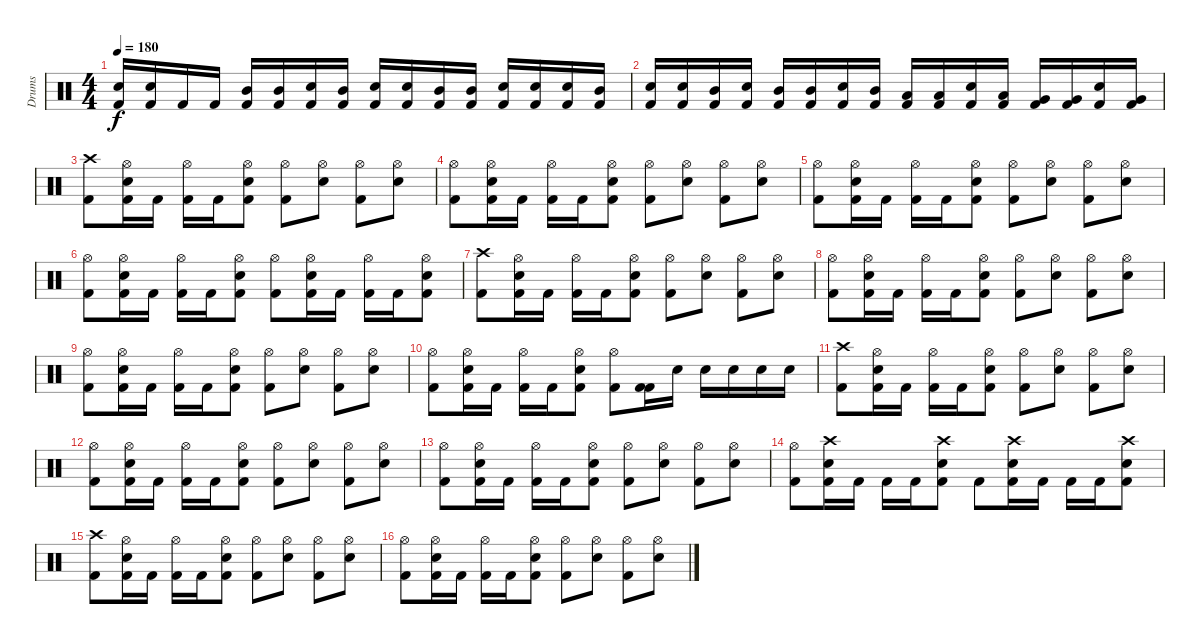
\track ("Drums" "Drums") {instrument percussion}
\staff {score}
\articulation defaults
\ts (4 4)
\tempo 180
\clef neutral
\ks c
("Kick (hit) 2" "Snare (hit) 2").16{dy f} ("Kick (hit) 2" "Snare (hit) 2").16 "Kick (hit) 2".16 "Kick (hit) 2".16 ("Kick (hit) 2" "Mid Tom (hit)").16 ("Kick (hit) 2" "Mid Tom (hit)").16 ("Kick (hit) 2" "Snare (hit) 2").16 ("Kick (hit) 2" "Mid Tom (hit)").16 ("Snare (hit) 2" "Kick (hit) 2").16 ("Snare (hit) 2" "Kick (hit) 2").16 ("Mid Tom (hit)" "Kick (hit) 2").16 ("Mid Tom (hit)" "Kick (hit) 2").16 ("Snare (hit) 2" "Kick (hit) 2").16 ("Snare (hit) 2" "Kick (hit) 2").16 ("Snare (hit) 2" "Kick (hit) 2").16 ("Mid Tom (hit)" "Kick (hit) 2").16 |
("Snare (hit) 2" "Kick (hit) 2").16 ("Snare (hit) 2" "Kick (hit) 2").16 ("Mid Tom (hit)" "Kick (hit) 2").16 ("Snare (hit) 2" "Kick (hit) 2").16 ("Mid Tom (hit)" "Kick (hit) 2").16 ("Mid Tom (hit)" "Kick (hit) 2").16 ("Snare (hit) 2" "Kick (hit) 2").16 ("Mid Tom (hit)" "Kick (hit) 2").16 ("Low Tom (hit)" "Kick (hit) 2").16 ("Low Tom (hit)" "Kick (hit) 2").16 ("Snare (hit) 2" "Kick (hit) 2").16 ("Low Tom (hit)" "Kick (hit) 2").16 ("Very Low Tom (hit)" "Kick (hit) 2").16 ("Very Low Tom (hit)" "Kick (hit) 2").16 ("Snare (hit) 2" "Kick (hit) 2").16 ("Very Low Tom (hit)" "Kick (hit) 2").16 |
("Kick (hit) 2" "Crash high (hit)").8 ("Kick (hit) 2" "Snare (hit) 2" "Hi-Hat (open)").16 "Kick (hit) 2".16 ("Kick (hit) 2" "Hi-Hat (open)").16 "Kick (hit) 2".16 ("Kick (hit) 2" "Snare (hit) 2" "Hi-Hat (open)").8 ("Hi-Hat (open)" "Kick (hit) 2").8 ("Snare (hit) 2" "Hi-Hat (open)").8 ("Hi-Hat (open)" "Kick (hit) 2").8 ("Snare (hit) 2" "Hi-Hat (open)").8 |
("Kick (hit) 2" "Hi-Hat (open)").8 ("Kick (hit) 2" "Snare (hit) 2" "Hi-Hat (open)").16 "Kick (hit) 2".16 ("Kick (hit) 2" "Hi-Hat (open)").16 "Kick (hit) 2".16 ("Kick (hit) 2" "Snare (hit) 2" "Hi-Hat (open)").8 ("Hi-Hat (open)" "Kick (hit) 2").8 ("Snare (hit) 2" "Hi-Hat (open)").8 ("Hi-Hat (open)" "Kick (hit) 2").8 ("Snare (hit) 2" "Hi-Hat (open)").8 |
("Kick (hit) 2" "Hi-Hat (open)").8 ("Kick (hit) 2" "Snare (hit) 2" "Hi-Hat (open)").16 "Kick (hit) 2".16 ("Kick (hit) 2" "Hi-Hat (open)").16 "Kick (hit) 2".16 ("Kick (hit) 2" "Snare (hit) 2" "Hi-Hat (open)").8 ("Hi-Hat (open)" "Kick (hit) 2").8 ("Snare (hit) 2" "Hi-Hat (open)").8 ("Hi-Hat (open)" "Kick (hit) 2").8 ("Snare (hit) 2" "Hi-Hat (open)").8 |
("Kick (hit) 2" "Hi-Hat (open)").8 ("Kick (hit) 2" "Snare (hit) 2" "Hi-Hat (open)").16 "Kick (hit) 2".16 ("Kick (hit) 2" "Hi-Hat (open)").16 "Kick (hit) 2".16 ("Kick (hit) 2" "Snare (hit) 2" "Hi-Hat (open)").8 ("Hi-Hat (open)" "Kick (hit) 2").8 ("Kick (hit) 2" "Snare (hit) 2" "Hi-Hat (open)").16 "Kick (hit) 2".16 ("Kick (hit) 2" "Hi-Hat (open)").16 "Kick (hit) 2".16 ("Hi-Hat (open)" "Kick (hit) 2" "Snare (hit) 2").8 |
("Kick (hit) 2" "Crash high (hit)").8 ("Kick (hit) 2" "Snare (hit) 2" "Hi-Hat (open)").16 "Kick (hit) 2".16 ("Kick (hit) 2" "Hi-Hat (open)").16 "Kick (hit) 2".16 ("Kick (hit) 2" "Snare (hit) 2" "Hi-Hat (open)").8 ("Hi-Hat (open)" "Kick (hit) 2").8 ("Snare (hit) 2" "Hi-Hat (open)").8 ("Hi-Hat (open)" "Kick (hit) 2").8 ("Snare (hit) 2" "Hi-Hat (open)").8 |
("Kick (hit) 2" "Hi-Hat (open)").8 ("Kick (hit) 2" "Snare (hit) 2" "Hi-Hat (open)").16 "Kick (hit) 2".16 ("Kick (hit) 2" "Hi-Hat (open)").16 "Kick (hit) 2".16 ("Kick (hit) 2" "Snare (hit) 2" "Hi-Hat (open)").8 ("Hi-Hat (open)" "Kick (hit) 2").8 ("Snare (hit) 2" "Hi-Hat (open)").8 ("Hi-Hat (open)" "Kick (hit) 2").8 ("Snare (hit) 2" "Hi-Hat (open)").8 |
("Kick (hit) 2" "Hi-Hat (open)").8 ("Kick (hit) 2" "Snare (hit) 2" "Hi-Hat (open)").16 "Kick (hit) 2".16 ("Kick (hit) 2" "Hi-Hat (open)").16 "Kick (hit) 2".16 ("Kick (hit) 2" "Snare (hit) 2" "Hi-Hat (open)").8 ("Hi-Hat (open)" "Kick (hit) 2").8 ("Snare (hit) 2" "Hi-Hat (open)").8 ("Hi-Hat (open)" "Kick (hit) 2").8 ("Snare (hit) 2" "Hi-Hat (open)").8 |
("Kick (hit) 2" "Hi-Hat (open)").8 ("Kick (hit) 2" "Snare (hit) 2" "Hi-Hat (open)").16 "Kick (hit) 2".16 ("Kick (hit) 2" "Hi-Hat (open)").16 "Kick (hit) 2".16 ("Kick (hit) 2" "Snare (hit) 2" "Hi-Hat (open)").8 ("Hi-Hat (open)" "Kick (hit) 2").8 ("Kick (hit) 2" "Kick (hit) 2").16 "Snare (hit) 2".16 "Snare (hit) 2".16 "Snare (hit) 2".16 "Snare (hit) 2".16 "Snare (hit) 2".16 |
("Kick (hit) 2" "Crash high (hit)").8 ("Kick (hit) 2" "Snare (hit) 2" "Hi-Hat (open)").16 "Kick (hit) 2".16 ("Kick (hit) 2" "Hi-Hat (open)").16 "Kick (hit) 2".16 ("Kick (hit) 2" "Snare (hit) 2" "Hi-Hat (open)").8 ("Hi-Hat (open)" "Kick (hit) 2").8 ("Snare (hit) 2" "Hi-Hat (open)").8 ("Hi-Hat (open)" "Kick (hit) 2").8 ("Snare (hit) 2" "Hi-Hat (open)").8 |
("Kick (hit) 2" "Hi-Hat (open)").8 ("Kick (hit) 2" "Snare (hit) 2" "Hi-Hat (open)").16 "Kick (hit) 2".16 ("Kick (hit) 2" "Hi-Hat (open)").16 "Kick (hit) 2".16 ("Kick (hit) 2" "Snare (hit) 2" "Hi-Hat (open)").8 ("Hi-Hat (open)" "Kick (hit) 2").8 ("Snare (hit) 2" "Hi-Hat (open)").8 ("Hi-Hat (open)" "Kick (hit) 2").8 ("Snare (hit) 2" "Hi-Hat (open)").8 |
("Kick (hit) 2" "Hi-Hat (open)").8 ("Kick (hit) 2" "Snare (hit) 2" "Hi-Hat (open)").16 "Kick (hit) 2".16 ("Kick (hit) 2" "Hi-Hat (open)").16 "Kick (hit) 2".16 ("Kick (hit) 2" "Snare (hit) 2" "Hi-Hat (open)").8 ("Hi-Hat (open)" "Kick (hit) 2").8 ("Snare (hit) 2" "Hi-Hat (open)").8 ("Hi-Hat (open)" "Kick (hit) 2").8 ("Snare (hit) 2" "Hi-Hat (open)").8 |
("Kick (hit) 2" "Hi-Hat (open)").8 ("Kick (hit) 2" "Snare (hit) 2" "Crash high (hit)").16 "Kick (hit) 2".16 "Kick (hit) 2".16 "Kick (hit) 2".16 ("Kick (hit) 2" "Snare (hit) 2" "Crash high (hit)").8 "Kick (hit) 2".8 ("Kick (hit) 2" "Snare (hit) 2" "Crash high (hit)").16 "Kick (hit) 2".16 "Kick (hit) 2".16 "Kick (hit) 2".16 ("Crash high (hit)" "Kick (hit) 2" "Snare (hit) 2").8 |
("Kick (hit) 2" "Crash high (hit)").8 ("Kick (hit) 2" "Snare (hit) 2" "Hi-Hat (open)").16 "Kick (hit) 2".16 ("Kick (hit) 2" "Hi-Hat (open)").16 "Kick (hit) 2".16 ("Kick (hit) 2" "Snare (hit) 2" "Hi-Hat (open)").8 ("Hi-Hat (open)" "Kick (hit) 2").8 ("Snare (hit) 2" "Hi-Hat (open)").8 ("Hi-Hat (open)" "Kick (hit) 2").8 ("Snare (hit) 2" "Hi-Hat (open)").8 |
("Kick (hit) 2" "Hi-Hat (open)").8 ("Kick (hit) 2" "Snare (hit) 2" "Hi-Hat (open)").16 "Kick (hit) 2".16 ("Kick (hit) 2" "Hi-Hat (open)").16 "Kick (hit) 2".16 ("Kick (hit) 2" "Snare (hit) 2" "Hi-Hat (open)").8 ("Hi-Hat (open)" "Kick (hit) 2").8 ("Snare (hit) 2" "Hi-Hat (open)").8 ("Hi-Hat (open)" "Kick (hit) 2").8 ("Snare (hit) 2" "Hi-Hat (open)").8
